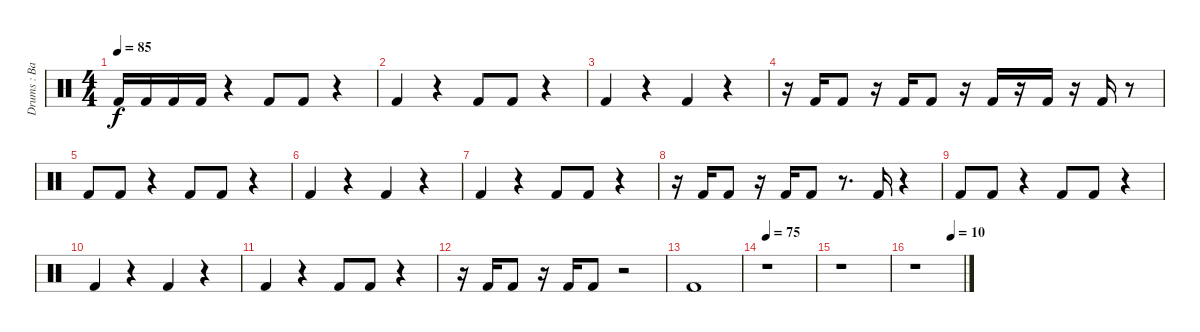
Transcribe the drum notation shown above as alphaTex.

\track ("Drums : Bass Drums" "Drums : Ba") {instrument percussion}
\staff {score}
\articulation defaults
\ts (4 4)
\tempo 85
\clef neutral
\ks c "Kick (hit) 2".16{dy f} "Kick (hit) 2".16 "Kick (hit) 2".16 "Kick (hit) 2".16
r.4 "Kick (hit) 2".8 "Kick (hit) 2".8 r.4 |
"Kick (hit) 2".4 r.4 "Kick (hit) 2".8 "Kick (hit) 2".8 r.4 |
"Kick (hit) 2".4 r.4 "Kick (hit) 2".4 r.4 |
r.16 "Kick (hit) 2".16 "Kick (hit) 2".8 r.16 "Kick (hit) 2".16 "Kick (hit) 2".8 r.16 "Kick (hit) 2".16 r.16 "Kick (hit) 2".16 r.16 "Kick (hit) 2".16 r.8 |
"Kick (hit) 2".8 "Kick (hit) 2".8 r.4 "Kick (hit) 2".8 "Kick (hit) 2".8 r.4 |
"Kick (hit) 2".4 r.4 "Kick (hit) 2".4 r.4 |
"Kick (hit) 2".4 r.4 "Kick (hit) 2".8 "Kick (hit) 2".8 r.4 |
r.16 "Kick (hit) 2".16 "Kick (hit) 2".8 r.16 "Kick (hit) 2".16 "Kick (hit) 2".8 r.8{d} "Kick (hit) 2".16 r.4 |
"Kick (hit) 2".8 "Kick (hit) 2".8 r.4 "Kick (hit) 2".8 "Kick (hit) 2".8 r.4 |
"Kick (hit) 2".4 r.4 "Kick (hit) 2".4 r.4 |
"Kick (hit) 2".4 r.4 "Kick (hit) 2".8 "Kick (hit) 2".8 r.4 |
r.16 "Kick (hit) 2".16 "Kick (hit) 2".8 r.16 "Kick (hit) 2".16 "Kick (hit) 2".8 r.2 |
"Kick (hit) 2".1 |
\tempo 75
r.1 |
r.1 |
\tempo (10 0.75)
r.1
